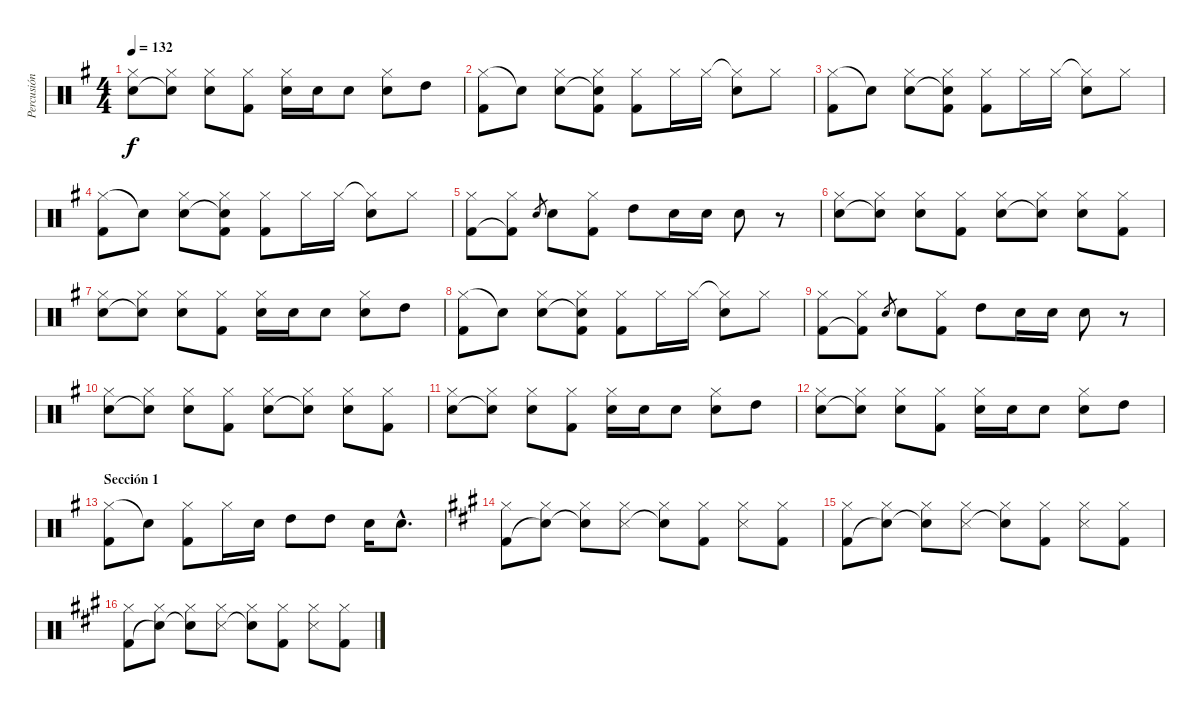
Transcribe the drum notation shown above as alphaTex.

\track ("Percusión" "Percusión") {instrument percussion}
\staff {score}
\articulation defaults
\ts (4 4)
\tempo 132
\clef neutral
\ks eminor
("Hi-Hat (closed)" "Electric Snare (hit)").8{dy f} ("Hi-Hat (closed)" "Snare (hit)"{t}).8 ("Hi-Hat (closed)" "Electric Snare (hit)").8 ("Hi-Hat (closed)" "Kick (hit) 2").8 ("Hi-Hat (closed)" "Electric Snare (hit)").16 "Electric Snare (hit)".16 "Electric Snare (hit)".8 ("Hi-Hat (closed)" "Electric Snare (hit)").8 "High Tom (hit)".8 |
("Hi-Hat (closed)" "Kick (hit) 2").8 "Snare (hit)"{t}.8 ("Hi-Hat (closed)" "Electric Snare (hit)").8 ("Hi-Hat (closed)" "Snare (hit)"{t} "Kick (hit) 2").8 ("Hi-Hat (closed)" "Kick (hit) 2").8 "Hi-Hat (closed)".16 "Hi-Hat (closed)".16 ("Hi-Hat (closed)"{t} "Electric Snare (hit)").8 "Hi-Hat (closed)".8 |
("Hi-Hat (closed)" "Kick (hit) 2").8 "Snare (hit)"{t}.8 ("Hi-Hat (closed)" "Electric Snare (hit)").8 ("Hi-Hat (closed)" "Snare (hit)"{t} "Kick (hit) 2").8 ("Hi-Hat (closed)" "Kick (hit) 2").8 "Hi-Hat (closed)".16 "Hi-Hat (closed)".16 ("Hi-Hat (closed)"{t} "Electric Snare (hit)").8 "Hi-Hat (closed)".8 |
("Hi-Hat (closed)" "Kick (hit) 2").8 "Snare (hit)"{t}.8 ("Hi-Hat (closed)" "Electric Snare (hit)").8 ("Hi-Hat (closed)" "Snare (hit)"{t} "Kick (hit) 2").8 ("Hi-Hat (closed)" "Kick (hit) 2").8 "Hi-Hat (closed)".16 "Hi-Hat (closed)".16 ("Hi-Hat (closed)"{t} "Electric Snare (hit)").8 "Hi-Hat (closed)".8 |
("Hi-Hat (closed)" "Kick (hit) 2").8 ("Hi-Hat (closed)" "Kick (hit) 2"{t}).8 "Electric Snare (hit)".8{gr} "Electric Snare (hit)".8 ("Hi-Hat (closed)" "Kick (hit) 2").8 "High Tom (hit)".8 "Electric Snare (hit)".16 "Electric Snare (hit)".16 "Electric Snare (hit)".8 r.8 |
("Hi-Hat (closed)" "Electric Snare (hit)").8 ("Hi-Hat (closed)" "Snare (hit)"{t}).8 ("Hi-Hat (closed)" "Electric Snare (hit)").8 ("Hi-Hat (closed)" "Kick (hit) 2").8 ("Hi-Hat (closed)" "Electric Snare (hit)").8 ("Hi-Hat (closed)" "Snare (hit)"{t}).8 ("Hi-Hat (closed)" "Electric Snare (hit)").8 ("Hi-Hat (closed)" "Kick (hit) 2").8 |
("Hi-Hat (closed)" "Electric Snare (hit)").8 ("Hi-Hat (closed)" "Snare (hit)"{t}).8 ("Hi-Hat (closed)" "Electric Snare (hit)").8 ("Hi-Hat (closed)" "Kick (hit) 2").8 ("Hi-Hat (closed)" "Electric Snare (hit)").16 "Electric Snare (hit)".16 "Electric Snare (hit)".8 ("Hi-Hat (closed)" "Electric Snare (hit)").8 "High Tom (hit)".8 |
("Hi-Hat (closed)" "Kick (hit) 2").8 "Snare (hit)"{t}.8 ("Hi-Hat (closed)" "Electric Snare (hit)").8 ("Hi-Hat (closed)" "Snare (hit)"{t} "Kick (hit) 2").8 ("Hi-Hat (closed)" "Kick (hit) 2").8 "Hi-Hat (closed)".16 "Hi-Hat (closed)".16 ("Hi-Hat (closed)"{t} "Electric Snare (hit)").8 "Hi-Hat (closed)".8 |
("Hi-Hat (closed)" "Kick (hit) 2").8 ("Hi-Hat (closed)" "Kick (hit) 2"{t}).8 "Electric Snare (hit)".8{gr} "Electric Snare (hit)".8 ("Hi-Hat (closed)" "Kick (hit) 2").8 "High Tom (hit)".8 "Electric Snare (hit)".16 "Electric Snare (hit)".16 "Electric Snare (hit)".8 r.8 |
("Hi-Hat (closed)" "Electric Snare (hit)").8 ("Hi-Hat (closed)" "Snare (hit)"{t}).8 ("Hi-Hat (closed)" "Electric Snare (hit)").8 ("Hi-Hat (closed)" "Kick (hit) 2").8 ("Hi-Hat (closed)" "Electric Snare (hit)").8 ("Hi-Hat (closed)" "Snare (hit)"{t}).8 ("Hi-Hat (closed)" "Electric Snare (hit)").8 ("Hi-Hat (closed)" "Kick (hit) 2").8 |
("Hi-Hat (closed)" "Electric Snare (hit)").8 ("Hi-Hat (closed)" "Snare (hit)"{t}).8 ("Hi-Hat (closed)" "Electric Snare (hit)").8 ("Hi-Hat (closed)" "Kick (hit) 2").8 ("Hi-Hat (closed)" "Electric Snare (hit)").16 "Electric Snare (hit)".16 "Electric Snare (hit)".8 ("Hi-Hat (closed)" "Electric Snare (hit)").8 "High Tom (hit)".8 |
("Hi-Hat (closed)" "Electric Snare (hit)").8 ("Hi-Hat (closed)" "Snare (hit)"{t}).8 ("Hi-Hat (closed)" "Electric Snare (hit)").8 ("Hi-Hat (closed)" "Kick (hit) 2").8 ("Hi-Hat (closed)" "Electric Snare (hit)").16 "Electric Snare (hit)".16 "Electric Snare (hit)".8 ("Hi-Hat (closed)" "Electric Snare (hit)").8 "High Tom (hit)".8 |
\section ("" "Sección 1")
("Hi-Hat (closed)" "Kick (hit) 2").8 "Snare (hit)"{t}.8 ("Hi-Hat (closed)" "Kick (hit) 2").8 "Hi-Hat (closed)".16 "Electric Snare (hit)".16 "High Tom (hit)".8 "High Tom (hit)".8 "Electric Snare (hit)".16 "Electric Snare (hit)"{hac}.8{d} |
\ks f#minor
("Hi-Hat (closed)" "Kick (hit) 2").8 ("Hi-Hat (closed)" "Snare (hit)"{t}).8 ("Hi-Hat (closed)" "Snare (hit)"{t}).8 ("Hi-Hat (closed)" "Snare (side stick) 3").8 ("Hi-Hat (closed)" "Snare (hit)"{t}).8 ("Hi-Hat (closed)" "Kick (hit) 2").8 ("Hi-Hat (closed)" "Snare (side stick) 3").8 ("Hi-Hat (closed)" "Kick (hit) 2").8 |
("Hi-Hat (closed)" "Kick (hit) 2").8 ("Hi-Hat (closed)" "Snare (hit)"{t}).8 ("Hi-Hat (closed)" "Snare (hit)"{t}).8 ("Hi-Hat (closed)" "Snare (side stick) 3").8 ("Hi-Hat (closed)" "Snare (hit)"{t}).8 ("Hi-Hat (closed)" "Kick (hit) 2").8 ("Hi-Hat (closed)" "Snare (side stick) 3").8 ("Hi-Hat (closed)" "Kick (hit) 2").8 |
("Hi-Hat (closed)" "Kick (hit) 2").8 ("Hi-Hat (closed)" "Snare (hit)"{t}).8 ("Hi-Hat (closed)" "Snare (hit)"{t}).8 ("Hi-Hat (closed)" "Snare (side stick) 3").8 ("Hi-Hat (closed)" "Snare (hit)"{t}).8 ("Hi-Hat (closed)" "Kick (hit) 2").8 ("Hi-Hat (closed)" "Snare (side stick) 3").8 ("Hi-Hat (closed)" "Kick (hit) 2").8
